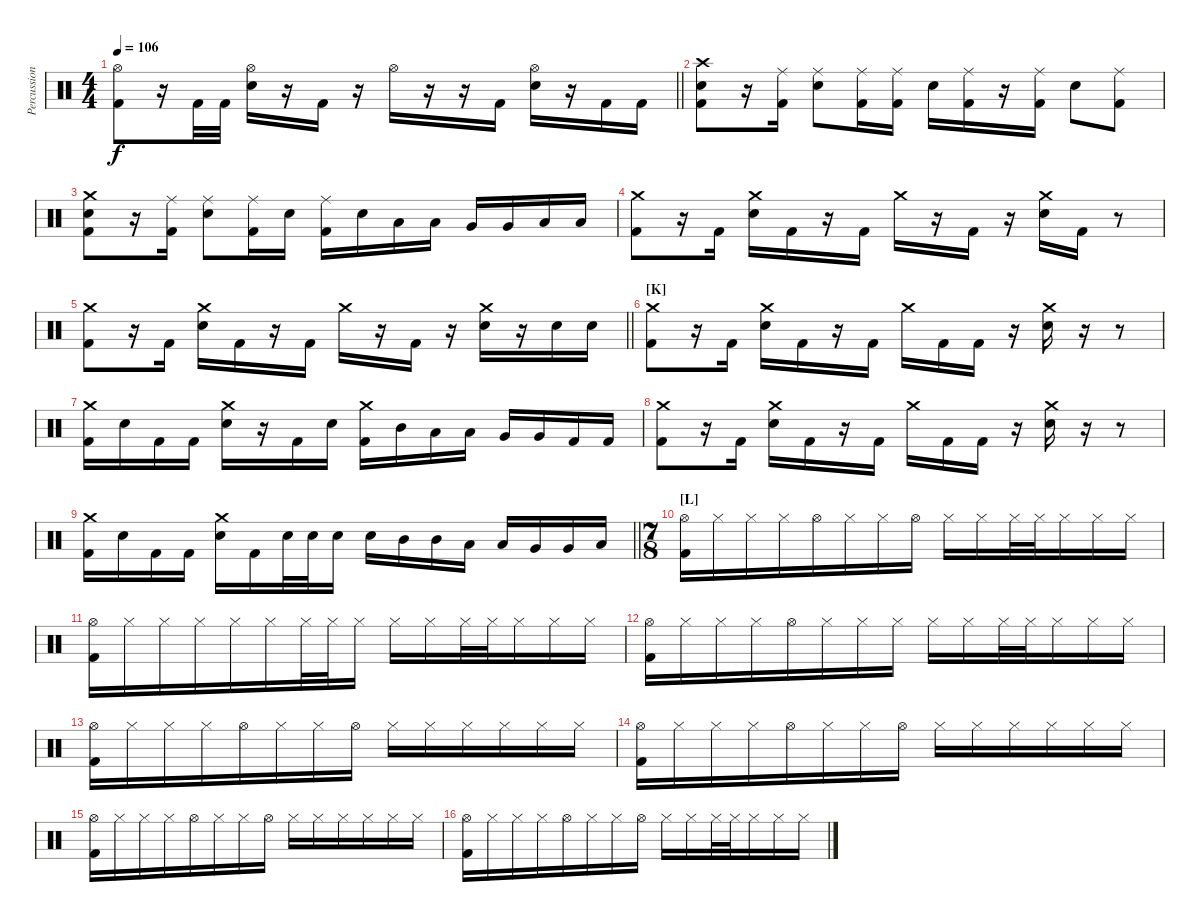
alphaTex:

\track ("Percussions" "Percussion") {instrument percussion}
\staff {score}
\articulation defaults
\ts (4 4)
\tempo 106
\clef neutral
\barLineRight lightlight
\ks c
("Hi-Hat (open)" "Kick (hit) 2").8{dy f} r.16 "Kick (hit) 2".32 "Kick (hit) 2".32 ("Hi-Hat (open)" "Electric Snare (hit)").16 r.16 "Kick (hit) 2".16 r.16 "Hi-Hat (open)".16 r.16 r.16 "Kick (hit) 2".16 ("Hi-Hat (open)" "Electric Snare (hit)").16 r.16 "Kick (hit) 2".16 "Kick (hit) 2".16 |
("Crash high (hit)" "Electric Snare (hit)" "Kick (hit) 2").8 r.16 ("Ride (middle)" "Kick (hit) 2").16 ("Ride (middle)" "Electric Snare (hit)").8 ("Ride (middle)" "Kick (hit) 2").16 ("Ride (middle)" "Kick (hit) 2").16 "Electric Snare (hit)".16 ("Ride (middle)" "Kick (hit) 2").16 r.16 ("Ride (middle)" "Kick (hit) 2").16 "Electric Snare (hit)".8 ("Ride (middle)" "Kick (hit) 2").8 |
("Crash medium (hit)" "Electric Snare (hit)" "Kick (hit) 2").8 r.16 ("Ride (middle)" "Kick (hit) 2").16 ("Ride (middle)" "Electric Snare (hit)").8 ("Ride (middle)" "Kick (hit) 2").16 "Electric Snare (hit)".16 ("Ride (middle)" "Kick (hit) 2").16 "Electric Snare (hit)".16 "Low Tom (hit)".16 "Low Tom (hit)".16 "Very Low Tom (hit)".16 "Very Low Tom (hit)".16 "Low Floor Tom (hit)".16 "Low Floor Tom (hit)".16 |
("Crash medium (hit)" "Kick (hit) 2").8 r.16 "Kick (hit) 2".16 ("Crash medium (hit)" "Electric Snare (hit)").16 "Kick (hit) 2".16 r.16 "Kick (hit) 2".16 "Crash medium (hit)".16 r.16 "Kick (hit) 2".16 r.16 ("Crash medium (hit)" "Electric Snare (hit)").16 "Kick (hit) 2".16 r.8 |
\barLineRight lightlight
("Crash medium (hit)" "Kick (hit) 2").8 r.16 "Kick (hit) 2".16 ("Crash medium (hit)" "Electric Snare (hit)").16 "Kick (hit) 2".16 r.16 "Kick (hit) 2".16 "Crash medium (hit)".16 r.16 "Kick (hit) 2".16 r.16 ("Crash medium (hit)" "Electric Snare (hit)").16 r.16 "Electric Snare (hit)".16 "Electric Snare (hit)".16 |
\section ("" "[K]")
("Crash medium (hit)" "Kick (hit) 2").8 r.16 "Kick (hit) 2".16 ("Crash medium (hit)" "Electric Snare (hit)").16 "Kick (hit) 2".16 r.16 "Kick (hit) 2".16 "Crash medium (hit)".16 "Kick (hit) 2".16 "Kick (hit) 2".16 r.16 ("Crash medium (hit)" "Electric Snare (hit)").16 r.16 r.8 |
("Crash medium (hit)" "Kick (hit) 2").16 "Electric Snare (hit)".16 "Kick (hit) 2".16 "Kick (hit) 2".16 ("Crash medium (hit)" "Electric Snare (hit)").16 r.16 "Kick (hit) 2".16 "Electric Snare (hit)".16 ("Crash medium (hit)" "Kick (hit) 2").16 "Mid Tom (hit)".16 "Low Tom (hit)".16 "Low Tom (hit)".16 "Very Low Tom (hit)".16 "Very Low Tom (hit)".16 "Kick (hit) 2".16 "Kick (hit) 2".16 |
("Crash medium (hit)" "Kick (hit) 2").8 r.16 "Kick (hit) 2".16 ("Crash medium (hit)" "Electric Snare (hit)").16 "Kick (hit) 2".16 r.16 "Kick (hit) 2".16 "Crash medium (hit)".16 "Kick (hit) 2".16 "Kick (hit) 2".16 r.16 ("Crash medium (hit)" "Electric Snare (hit)").16 r.16 r.8 |
\barLineRight lightlight
("Crash medium (hit)" "Kick (hit) 2").16 "Electric Snare (hit)".16 "Kick (hit) 2".16 "Kick (hit) 2".16 ("Crash medium (hit)" "Electric Snare (hit)").16 "Kick (hit) 2".16 "Electric Snare (hit)".32 "Electric Snare (hit)".32 "Electric Snare (hit)".16 "Electric Snare (hit)".16 "Mid Tom (hit)".16 "Mid Tom (hit)".16 "Low Tom (hit)".16 "Low Tom (hit)".16 "Very Low Tom (hit)".16 "Very Low Tom (hit)".16 "Low Floor Tom (hit)".16 |
\ts (7 8)
\section ("" "[L]")
("Hi-Hat (open)" "Kick (hit) 2").16 "Hi-Hat (closed)".16 "Hi-Hat (closed)".16 "Hi-Hat (closed)".16 "Hi-Hat (open)".16 "Hi-Hat (closed)".16 "Hi-Hat (closed)".16 "Hi-Hat (open)".16 "Hi-Hat (closed)".16 "Hi-Hat (closed)".16 "Hi-Hat (closed)".32 "Hi-Hat (closed)".32 "Hi-Hat (closed)".16 "Hi-Hat (closed)".16 "Hi-Hat (closed)".16 |
("Hi-Hat (open)" "Kick (hit) 2").16 "Hi-Hat (closed)".16 "Hi-Hat (closed)".16 "Hi-Hat (closed)".16 "Hi-Hat (closed)".16 "Hi-Hat (closed)".16 "Hi-Hat (closed)".32 "Hi-Hat (closed)".32 "Hi-Hat (closed)".16 "Hi-Hat (closed)".16 "Hi-Hat (closed)".16 "Hi-Hat (closed)".32 "Hi-Hat (closed)".32 "Hi-Hat (closed)".16 "Hi-Hat (closed)".16 "Hi-Hat (closed)".16 |
("Hi-Hat (open)" "Kick (hit) 2").16 "Hi-Hat (closed)".16 "Hi-Hat (closed)".16 "Hi-Hat (closed)".16 "Hi-Hat (open)".16 "Hi-Hat (closed)".16 "Hi-Hat (closed)".16 "Hi-Hat (closed)".16 "Hi-Hat (closed)".16 "Hi-Hat (closed)".16 "Hi-Hat (closed)".32 "Hi-Hat (closed)".32 "Hi-Hat (closed)".16 "Hi-Hat (closed)".16 "Hi-Hat (closed)".16 |
("Hi-Hat (open)" "Kick (hit) 2").16 "Hi-Hat (closed)".16 "Hi-Hat (closed)".16 "Hi-Hat (closed)".16 "Hi-Hat (open)".16 "Hi-Hat (closed)".16 "Hi-Hat (closed)".16 "Hi-Hat (open)".16 "Hi-Hat (closed)".16 "Hi-Hat (closed)".16 "Hi-Hat (closed)".16 "Hi-Hat (closed)".16 "Hi-Hat (closed)".16 "Hi-Hat (closed)".16 |
("Hi-Hat (open)" "Kick (hit) 2").16 "Hi-Hat (closed)".16 "Hi-Hat (closed)".16 "Hi-Hat (closed)".16 "Hi-Hat (open)".16 "Hi-Hat (closed)".16 "Hi-Hat (closed)".16 "Hi-Hat (open)".16 "Hi-Hat (closed)".16 "Hi-Hat (closed)".16 "Hi-Hat (closed)".16 "Hi-Hat (closed)".16 "Hi-Hat (closed)".16 "Hi-Hat (closed)".16 |
("Hi-Hat (open)" "Kick (hit) 2").16 "Hi-Hat (closed)".16 "Hi-Hat (closed)".16 "Hi-Hat (closed)".16 "Hi-Hat (open)".16 "Hi-Hat (closed)".16 "Hi-Hat (closed)".16 "Hi-Hat (open)".16 "Hi-Hat (closed)".16 "Hi-Hat (closed)".16 "Hi-Hat (closed)".16 "Hi-Hat (closed)".16 "Hi-Hat (closed)".16 "Hi-Hat (closed)".16 |
("Hi-Hat (open)" "Kick (hit) 2").16 "Hi-Hat (closed)".16 "Hi-Hat (closed)".16 "Hi-Hat (closed)".16 "Hi-Hat (open)".16 "Hi-Hat (closed)".16 "Hi-Hat (closed)".16 "Hi-Hat (open)".16 "Hi-Hat (closed)".16 "Hi-Hat (closed)".16 "Hi-Hat (closed)".32 "Hi-Hat (closed)".32 "Hi-Hat (closed)".16 "Hi-Hat (closed)".16 "Hi-Hat (closed)".16
